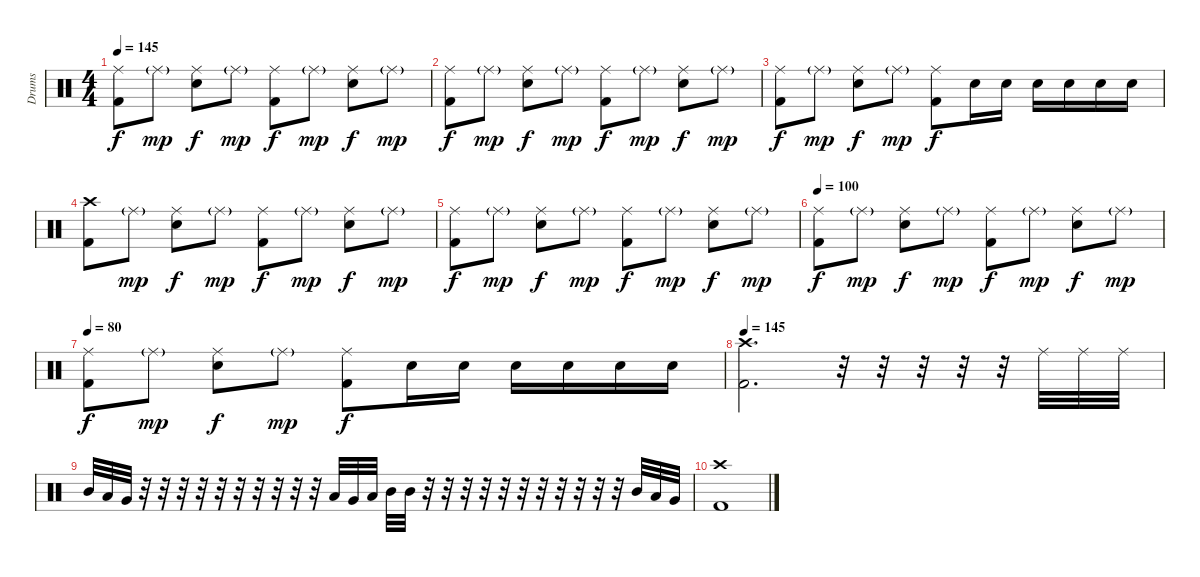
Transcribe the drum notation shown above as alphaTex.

\track ("Drums" "Drums") {instrument percussion}
\staff {score}
\articulation defaults
\ts (4 4)
\tempo 145
\clef neutral
\ks c
("Ride (middle)" "Kick (hit) 2").8{dy f} "Ride (middle)"{g}.8{dy mp} ("Ride (middle)" "Snare (hit) 2").8{dy f} "Ride (middle)"{g}.8{dy mp} ("Ride (middle)" "Kick (hit) 2").8{dy f} "Ride (middle)"{g}.8{dy mp} ("Ride (middle)" "Snare (hit) 2").8{dy f} "Ride (middle)"{g}.8{dy mp} |
("Ride (middle)" "Kick (hit) 2").8{dy f} "Ride (middle)"{g}.8{dy mp} ("Ride (middle)" "Snare (hit) 2").8{dy f} "Ride (middle)"{g}.8{dy mp} ("Ride (middle)" "Kick (hit) 2").8{dy f} "Ride (middle)"{g}.8{dy mp} ("Ride (middle)" "Snare (hit) 2").8{dy f} "Ride (middle)"{g}.8{dy mp} |
("Ride (middle)" "Kick (hit) 2").8{dy f} "Ride (middle)"{g}.8{dy mp} ("Ride (middle)" "Snare (hit) 2").8{dy f} "Ride (middle)"{g}.8{dy mp} ("Ride (middle)" "Kick (hit) 2").8{dy f} "Snare (hit) 2".16 "Snare (hit) 2".16 "Snare (hit) 2".16 "Snare (hit) 2".16 "Snare (hit) 2".16 "Snare (hit) 2".16 |
("Crash high (hit)" "Kick (hit) 2").8 "Ride (middle)"{g}.8{dy mp} ("Ride (middle)" "Snare (hit) 2").8{dy f} "Ride (middle)"{g}.8{dy mp} ("Ride (middle)" "Kick (hit) 2").8{dy f} "Ride (middle)"{g}.8{dy mp} ("Ride (middle)" "Snare (hit) 2").8{dy f} "Ride (middle)"{g}.8{dy mp} |
("Ride (middle)" "Kick (hit) 2").8{dy f} "Ride (middle)"{g}.8{dy mp} ("Ride (middle)" "Snare (hit) 2").8{dy f} "Ride (middle)"{g}.8{dy mp} ("Ride (middle)" "Kick (hit) 2").8{dy f} "Ride (middle)"{g}.8{dy mp} ("Ride (middle)" "Snare (hit) 2").8{dy f} "Ride (middle)"{g}.8{dy mp} |
\tempo 100
("Ride (middle)" "Kick (hit) 2").8{dy f} "Ride (middle)"{g}.8{dy mp} ("Ride (middle)" "Snare (hit) 2").8{dy f} "Ride (middle)"{g}.8{dy mp} ("Ride (middle)" "Kick (hit) 2").8{dy f} "Ride (middle)"{g}.8{dy mp} ("Ride (middle)" "Snare (hit) 2").8{dy f} "Ride (middle)"{g}.8{dy mp} |
\tempo 80
("Ride (middle)" "Kick (hit) 2").8{dy f} "Ride (middle)"{g}.8{dy mp} ("Ride (middle)" "Snare (hit) 2").8{dy f} "Ride (middle)"{g}.8{dy mp} ("Ride (middle)" "Kick (hit) 2").8{dy f} "Snare (hit) 2".16 "Snare (hit) 2".16 "Snare (hit) 2".16 "Snare (hit) 2".16 "Snare (hit) 2".16 "Snare (hit) 2".16 |
\tempo 145
("Kick (hit) 2" "Crash high (hit)").2{d} r.32 r.32 r.32 r.32 r.32 "Ride (middle)".32 "Ride (middle)".32 "Ride (middle)".32 |
"Mid Tom (hit)".32 "Low Tom (hit)".32 "Very Low Tom (hit)".32 r.32 r.32 r.32 r.32 r.32 r.32 r.32 r.32 r.32 r.32 "Low Floor Tom (hit)".32 "Very Low Tom (hit)".32 "Low Tom (hit)".32 "Mid Tom (hit)".32 "Mid Tom (hit)".32 r.32 r.32 r.32 r.32 r.32 r.32 r.32 r.32 r.32 r.32 r.32 "Mid Tom (hit)".32 "Low Tom (hit)".32 "Very Low Tom (hit)".32 |
("Crash high (hit)" "Kick (hit) 2").1
